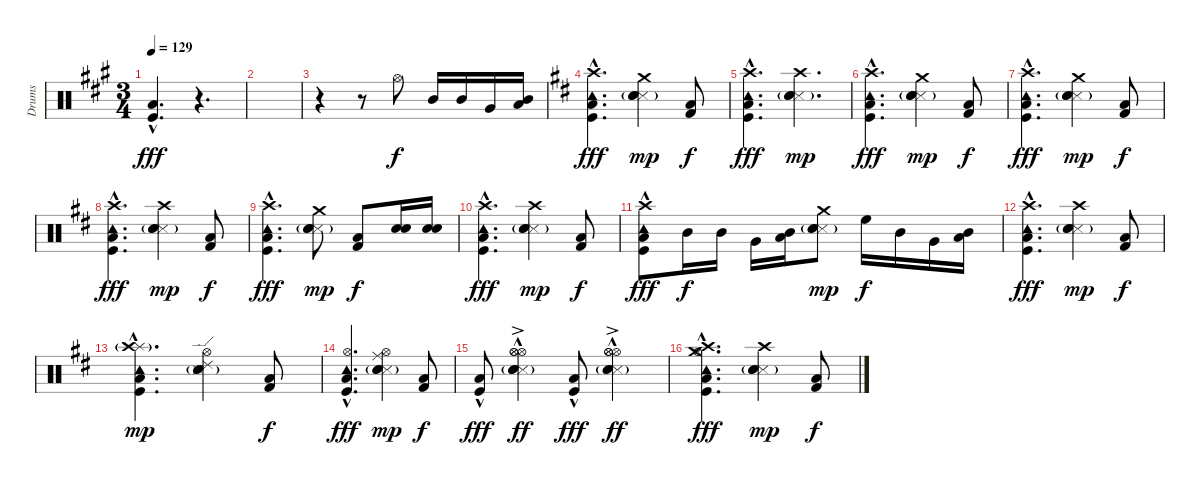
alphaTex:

\track ("Drums" "Drums") {instrument percussion}
\staff {score}
\articulation defaults
\ts (3 4)
\tempo 129
\clef neutral
\ks f#minor
("Kick (hit)"{hac} "Low Floor Tom (hit)"{hac}).4{d dy fff} r.4{d} |
|
r.4{volume 11} r.8{volume 16} "Hi-Hat (open)".8{dy f} "Mid Tom (hit)".16 "Mid Tom (hit)".16 "Very Low Tom (hit)".16 ("Low Floor Tom (hit)" "Mid Tom (hit)").16 |
\ks bminor
("Kick (hit)"{hac} "Low Floor Tom (hit)"{hac} "Tambourine (hit)"{hac} "Crash high (hit)").4{d dy fff} ("Snare (side stick) 3"{g} "Snare (hit) 2" "Electric Snare (hit)" "Crash medium (hit)").4{dy mp} ("Low Floor Tom (hit)" "Kick (hit) 2").8{dy f} |
("Kick (hit)"{hac} "Low Floor Tom (hit)"{hac} "Tambourine (hit)"{hac} "Crash high (hit)").4{d dy fff} ("Snare (side stick) 3"{g} "Snare (hit) 2" "Electric Snare (hit)" "Crash high (hit)").4{d dy mp} |
("Kick (hit)"{hac} "Low Floor Tom (hit)"{hac} "Tambourine (hit)"{hac} "Crash high (hit)").4{d dy fff} ("Snare (side stick) 3"{g} "Snare (hit) 2" "Electric Snare (hit)" "Crash medium (hit)").4{dy mp} ("Low Floor Tom (hit)" "Kick (hit) 2").8{dy f} |
("Kick (hit)"{hac} "Low Floor Tom (hit)"{hac} "Tambourine (hit)"{hac} "Crash high (hit)").4{d dy fff} ("Snare (side stick) 3"{g} "Snare (hit) 2" "Electric Snare (hit)" "Crash medium (hit)").4{dy mp} ("Low Floor Tom (hit)" "Kick (hit) 2").8{dy f} |
("Kick (hit)"{hac} "Low Floor Tom (hit)"{hac} "Tambourine (hit)"{hac} "Crash high (hit)").4{d dy fff} ("Snare (side stick) 3"{g} "Snare (hit) 2" "Electric Snare (hit)" "Crash high (hit)").4{dy mp} ("Low Floor Tom (hit)" "Kick (hit) 2").8{dy f} |
("Kick (hit)"{hac} "Low Floor Tom (hit)"{hac} "Tambourine (hit)"{hac} "Crash high (hit)").4{d dy fff} ("Snare (side stick) 3"{g} "Snare (hit) 2" "Electric Snare (hit)" "Crash medium (hit)").8{dy mp} ("Low Floor Tom (hit)" "Kick (hit) 2").8{dy f} ("Snare (hit) 2" "Electric Snare (hit)").16 ("Snare (hit) 2" "Electric Snare (hit)").16 |
("Kick (hit)"{hac} "Low Floor Tom (hit)"{hac} "Tambourine (hit)"{hac} "Crash high (hit)").4{d dy fff} ("Snare (side stick) 3"{g} "Snare (hit) 2" "Electric Snare (hit)" "Crash high (hit)").4{dy mp} ("Low Floor Tom (hit)" "Kick (hit) 2").8{dy f} |
("Kick (hit)"{hac} "Low Floor Tom (hit)"{hac} "Tambourine (hit)"{hac} "Crash high (hit)").8{dy fff} "Mid Tom (hit)".16{dy f} "Mid Tom (hit)".16 "Very Low Tom (hit)".16 ("Low Floor Tom (hit)" "Mid Tom (hit)").16 ("Snare (side stick) 3"{g} "Snare (hit) 2" "Electric Snare (hit)" "Crash medium (hit)").8{dy mp} "High Floor Tom (hit)".16{dy f} "Mid Tom (hit)".16 "Very Low Tom (hit)".16 ("Low Floor Tom (hit)" "Mid Tom (hit)").16 |
("Kick (hit)"{hac} "Low Floor Tom (hit)"{hac} "Tambourine (hit)"{hac} "Crash high (hit)").4{d dy fff} ("Snare (side stick) 3"{g} "Snare (hit) 2" "Electric Snare (hit)" "Crash high (hit)").4{dy mp} ("Low Floor Tom (hit)" "Kick (hit) 2").8{dy f} |
("Kick (hit)"{hac} "Low Floor Tom (hit)"{hac} "Tambourine (hit)"{hac} "Splash (hit)"{hac} "Crash high (hit)"{g}).4{d dy mp} ("Snare (side stick) 3"{g} "Snare (hit) 2" "Electric Snare (hit)" "Ride (edge) 2" "Hi-Hat (open)").4 ("Low Floor Tom (hit)" "Kick (hit) 2").8{dy f} |
("Kick (hit)"{hac} "Low Floor Tom (hit)"{hac} "Tambourine (hit)"{hac} "Hi-Hat (open)").4{d dy fff} ("Snare (side stick) 3"{g} "Snare (hit) 2" "Electric Snare (hit)" "Ride (middle)" "Hi-Hat (open)").4{dy mp} ("Low Floor Tom (hit)" "Kick (hit) 2").8{dy f} |
("Kick (hit)"{hac} "Low Floor Tom (hit)"{hac}).8{dy fff} ("Snare (side stick) 3"{g} "Snare (hit) 2" "Electric Snare (hit)" "Hi-Hat (open)"{hac} "Hi-Hat (open)"{ac} "Hi-Hat (open)").4{dy ff} ("Kick (hit)"{hac} "Low Floor Tom (hit)"{hac}).8{dy fff} ("Snare (side stick) 3"{g} "Snare (hit) 2" "Electric Snare (hit)" "Hi-Hat (open)"{hac} "Hi-Hat (open)"{ac} "Hi-Hat (open)").4{dy ff} |
("Kick (hit)"{hac} "Low Floor Tom (hit)"{hac} "Crash medium (hit)" "Tambourine (hit)"{hac} "Crash high (hit)" "Hi-Hat (open)").4{d dy fff} ("Snare (side stick) 3"{g} "Snare (hit) 2" "Electric Snare (hit)" "Crash high (hit)").4{dy mp} ("Low Floor Tom (hit)" "Kick (hit) 2").8{dy f}
